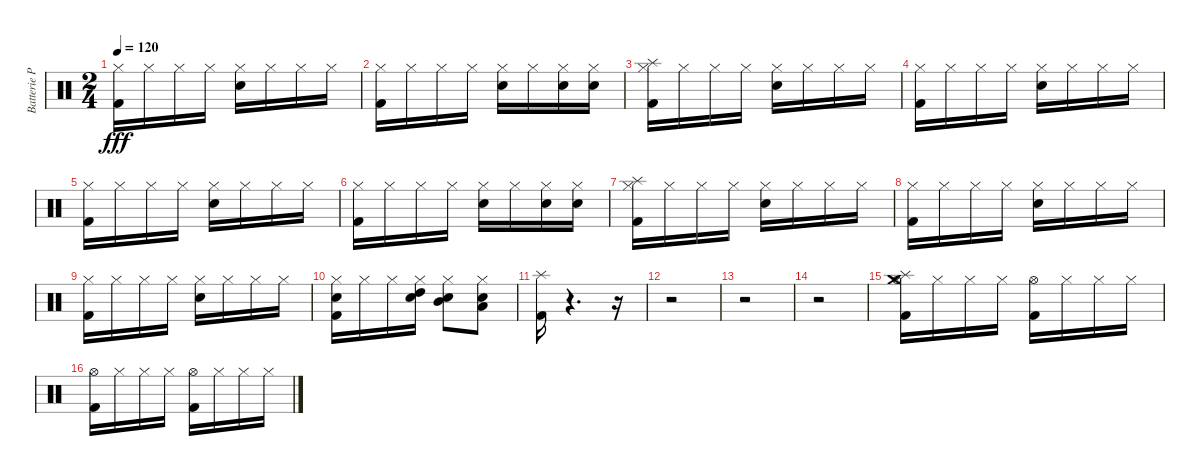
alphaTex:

\track ("Batterie Pako" "Batterie P") {instrument percussion}
\staff {score}
\articulation defaults
\ts (2 4)
\tempo 120
\clef neutral
\ks c
("Kick (hit) 2" "Hi-Hat (closed)").16{dy fff} "Hi-Hat (closed)".16 "Hi-Hat (closed)".16 "Hi-Hat (closed)".16 ("Hi-Hat (closed)" "Electric Snare (hit)").16 "Hi-Hat (closed)".16 "Hi-Hat (closed)".16 "Hi-Hat (closed)".16 |
("Kick (hit) 2" "Hi-Hat (closed)").16 "Hi-Hat (closed)".16 "Hi-Hat (closed)".16 "Hi-Hat (closed)".16 ("Electric Snare (hit)" "Hi-Hat (closed)").16 "Hi-Hat (closed)".16 ("Electric Snare (hit)" "Hi-Hat (closed)").16 ("Electric Snare (hit)" "Hi-Hat (closed)").16 |
("Kick (hit) 2" "Hi-Hat (closed)" "Splash (hit)").16 "Hi-Hat (closed)".16 "Hi-Hat (closed)".16 "Hi-Hat (closed)".16 ("Hi-Hat (closed)" "Electric Snare (hit)").16 "Hi-Hat (closed)".16 "Hi-Hat (closed)".16 "Hi-Hat (closed)".16 |
("Kick (hit) 2" "Hi-Hat (closed)").16 "Hi-Hat (closed)".16 "Hi-Hat (closed)".16 "Hi-Hat (closed)".16 ("Hi-Hat (closed)" "Electric Snare (hit)").16 "Hi-Hat (closed)".16 "Hi-Hat (closed)".16 "Hi-Hat (closed)".16 |
("Kick (hit) 2" "Hi-Hat (closed)").16 "Hi-Hat (closed)".16 "Hi-Hat (closed)".16 "Hi-Hat (closed)".16 ("Hi-Hat (closed)" "Electric Snare (hit)").16 "Hi-Hat (closed)".16 "Hi-Hat (closed)".16 "Hi-Hat (closed)".16 |
("Kick (hit) 2" "Hi-Hat (closed)").16 "Hi-Hat (closed)".16 "Hi-Hat (closed)".16 "Hi-Hat (closed)".16 ("Electric Snare (hit)" "Hi-Hat (closed)").16 "Hi-Hat (closed)".16 ("Electric Snare (hit)" "Hi-Hat (closed)").16 ("Electric Snare (hit)" "Hi-Hat (closed)").16 |
("Kick (hit) 2" "Hi-Hat (closed)" "Splash (hit)").16 "Hi-Hat (closed)".16 "Hi-Hat (closed)".16 "Hi-Hat (closed)".16 ("Hi-Hat (closed)" "Electric Snare (hit)").16 "Hi-Hat (closed)".16 "Hi-Hat (closed)".16 "Hi-Hat (closed)".16 |
("Kick (hit) 2" "Hi-Hat (closed)").16 "Hi-Hat (closed)".16 "Hi-Hat (closed)".16 "Hi-Hat (closed)".16 ("Hi-Hat (closed)" "Electric Snare (hit)").16 "Hi-Hat (closed)".16 "Hi-Hat (closed)".16 "Hi-Hat (closed)".16 |
("Kick (hit) 2" "Hi-Hat (closed)").16 "Hi-Hat (closed)".16 "Hi-Hat (closed)".16 "Hi-Hat (closed)".16 ("Hi-Hat (closed)" "Electric Snare (hit)").16 "Hi-Hat (closed)".16 "Hi-Hat (closed)".16 "Hi-Hat (closed)".16 |
("Kick (hit) 2" "Hi-Hat (closed)" "Electric Snare (hit)").16 "Hi-Hat (closed)".16 "Hi-Hat (closed)".16 ("Hi-Hat (closed)" "High Tom (hit)" "Electric Snare (hit)").16 ("Hi-Hat (closed)" "Mid Tom (hit)" "Electric Snare (hit)").8 ("Hi-Hat (closed)" "Low Tom (hit)" "Electric Snare (hit)").8 |
("Kick (hit) 2" "Splash (hit)").16 r.4{d} r.16 |
r.2 |
r.2 |
r.2 |
("Kick (hit) 2" "Crash medium (hit)" "Splash (hit)" "Hi-Hat (open)").16 "Hi-Hat (closed)".16 "Hi-Hat (closed)".16 "Hi-Hat (closed)".16 ("Kick (hit) 2" "Hi-Hat (open)").16 "Hi-Hat (closed)".16 "Hi-Hat (closed)".16 "Hi-Hat (closed)".16 |
("Kick (hit) 2" "Hi-Hat (open)").16 "Hi-Hat (closed)".16 "Hi-Hat (closed)".16 "Hi-Hat (closed)".16 ("Kick (hit) 2" "Hi-Hat (open)").16 "Hi-Hat (closed)".16 "Hi-Hat (closed)".16 "Hi-Hat (closed)".16
